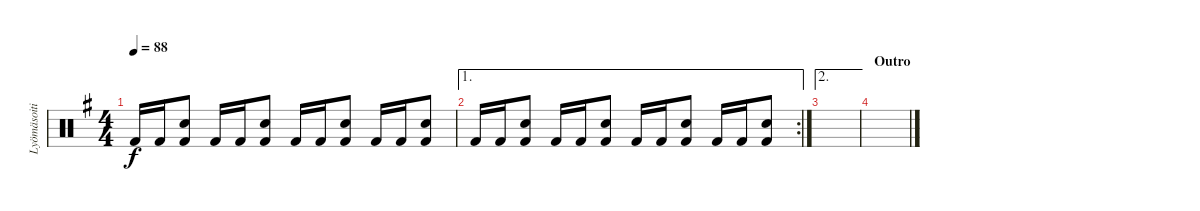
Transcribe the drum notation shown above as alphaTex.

\track ("Lyömäsoitin" "Lyömäsoiti") {instrument percussion}
\staff {score}
\articulation defaults
\ts (4 4)
\tempo 88
\clef neutral
\ks eminor "Kick (hit) 2".16{dy f} "Kick (hit) 2".16
("Snare (hit) 2" "Kick (hit) 2").8 "Kick (hit) 2".16 "Kick (hit) 2".16 ("Snare (hit) 2" "Kick (hit) 2").8 "Kick (hit) 2".16 "Kick (hit) 2".16 ("Snare (hit) 2" "Kick (hit) 2").8 "Kick (hit) 2".16 "Kick (hit) 2".16 ("Snare (hit) 2" "Kick (hit) 2").8 |
\ae 1
\rc 2 "Kick (hit) 2".16 "Kick (hit) 2".16
("Snare (hit) 2" "Kick (hit) 2").8 "Kick (hit) 2".16 "Kick (hit) 2".16 ("Snare (hit) 2" "Kick (hit) 2").8 "Kick (hit) 2".16 "Kick (hit) 2".16 ("Snare (hit) 2" "Kick (hit) 2").8 "Kick (hit) 2".16 "Kick (hit) 2".16 ("Snare (hit) 2" "Kick (hit) 2").8 |
\ae 2
|
\section ("" "Outro")
